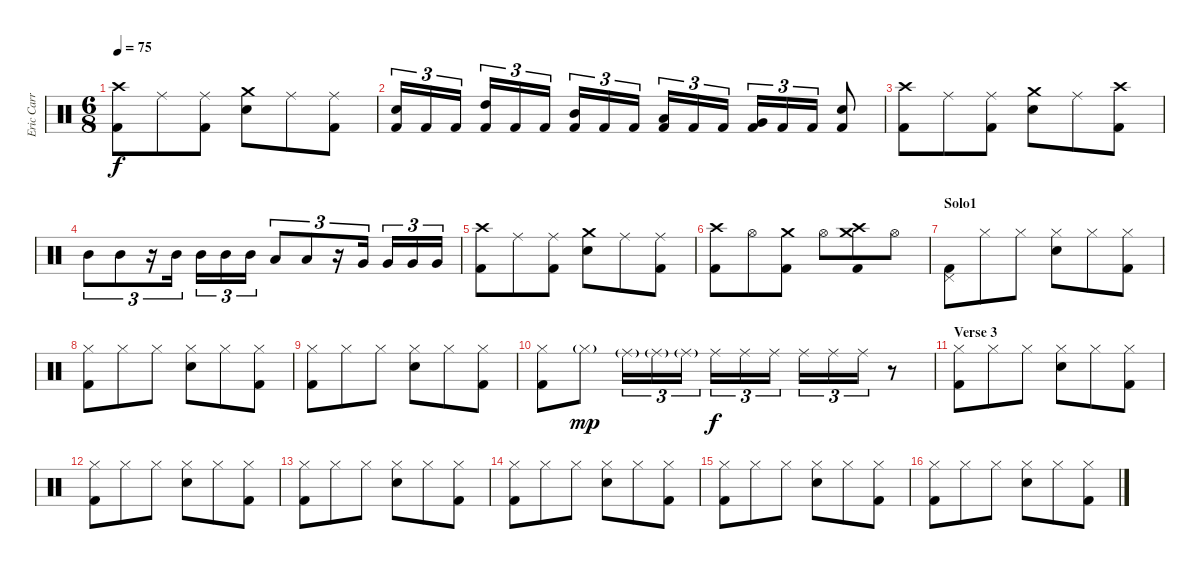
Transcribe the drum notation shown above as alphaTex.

\track ("Eric Carr" "Eric Carr") {instrument percussion}
\staff {score}
\articulation defaults
\ts (6 8)
\tempo 75
\clef neutral
\ks c
("Crash high (hit)" "Kick (hit) 2").8{dy f} "Ride (middle)".8 ("Ride (middle)" "Kick (hit) 2").8 ("Crash medium (hit)" "Electric Snare (hit)").8 "Ride (middle)".8 ("Ride (middle)" "Kick (hit) 2").8 |
("Electric Snare (hit)" "Kick (hit) 2").16{tu (3 2)} "Kick (hit) 2".16{tu (3 2)} "Kick (hit) 2".16{tu (3 2)} ("High Tom (hit)" "Kick (hit) 2").16{tu (3 2)} "Kick (hit) 2".16{tu (3 2)} "Kick (hit) 2".16{tu (3 2)} ("Mid Tom (hit)" "Kick (hit) 2").16{tu (3 2)} "Kick (hit) 2".16{tu (3 2)} "Kick (hit) 2".16{tu (3 2)} ("Low Tom (hit)" "Kick (hit) 2").16{tu (3 2)} "Kick (hit) 2".16{tu (3 2)} "Kick (hit) 2".16{tu (3 2)} ("Very Low Tom (hit)" "Kick (hit) 2").16{tu (3 2)} "Kick (hit) 2".16{tu (3 2)} "Kick (hit) 2".16{tu (3 2)} ("Electric Snare (hit)" "Kick (hit) 2").8 |
("Crash high (hit)" "Kick (hit) 2").8 "Ride (middle)".8 ("Ride (middle)" "Kick (hit) 2").8 ("Crash medium (hit)" "Electric Snare (hit)").8 "Ride (middle)".8 ("Crash high (hit)" "Kick (hit) 2").8 |
"Mid Tom (hit)".8{tu (3 2)} "Mid Tom (hit)".8{tu (3 2)} r.16{tu (3 2)} "Mid Tom (hit)".16{tu (3 2)} "Mid Tom (hit)".16{tu (3 2)} "Mid Tom (hit)".16{tu (3 2)} "Mid Tom (hit)".16{tu (3 2)} "Low Tom (hit)".8{tu (3 2)} "Low Tom (hit)".8{tu (3 2)} r.16{tu (3 2)} "Very Low Tom (hit)".16{tu (3 2)} "Very Low Tom (hit)".16{tu (3 2)} "Very Low Tom (hit)".16{tu (3 2)} "Very Low Tom (hit)".16{tu (3 2)} |
("Crash high (hit)" "Kick (hit) 2").8 "Ride (middle)".8 ("Ride (middle)" "Kick (hit) 2").8 ("Crash medium (hit)" "Electric Snare (hit)").8 "Ride (middle)".8 ("Ride (middle)" "Kick (hit) 2").8 |
("Crash high (hit)" "Kick (hit) 2").8 "Hi-Hat (open)".8 ("Crash medium (hit)" "Kick (hit) 2").8 "Hi-Hat (open)".8 ("Crash high (hit)" "Crash medium (hit)" "Kick (hit) 2").8 "Hi-Hat (open)".8 |
\section ("" "Solo1")
("Pedal Hi-Hat (hit)" "Kick (hit) 2").8 "Hi-Hat (closed)".8 "Hi-Hat (closed)".8 ("Hi-Hat (closed)" "Electric Snare (hit)").8 "Hi-Hat (closed)".8 ("Hi-Hat (closed)" "Kick (hit) 2").8 |
("Hi-Hat (closed)" "Kick (hit) 2").8 "Hi-Hat (closed)".8 "Hi-Hat (closed)".8 ("Hi-Hat (closed)" "Electric Snare (hit)").8 "Hi-Hat (closed)".8 ("Hi-Hat (closed)" "Kick (hit) 2").8 |
("Hi-Hat (closed)" "Kick (hit) 2").8 "Hi-Hat (closed)".8 "Hi-Hat (closed)".8 ("Hi-Hat (closed)" "Electric Snare (hit)").8 "Hi-Hat (closed)".8 ("Hi-Hat (closed)" "Kick (hit) 2").8 |
("Hi-Hat (closed)" "Kick (hit) 2").8 "Hi-Hat (closed)"{g}.8{dy mp} "Ride (middle)"{g}.16{tu (3 2)} "Ride (middle)"{g}.16{tu (3 2)} "Ride (middle)"{g}.16{tu (3 2)} "Ride (middle)".16{tu (3 2) dy f} "Ride (middle)".16{tu (3 2)} "Ride (middle)".16{tu (3 2)} "Ride (middle)".16{tu (3 2)} "Ride (middle)".16{tu (3 2)} "Ride (middle)".16{tu (3 2)} r.8 |
\section ("" "Verse 3")
("Hi-Hat (closed)" "Kick (hit) 2").8 "Hi-Hat (closed)".8 "Hi-Hat (closed)".8 ("Hi-Hat (closed)" "Electric Snare (hit)").8 "Hi-Hat (closed)".8 ("Hi-Hat (closed)" "Kick (hit) 2").8 |
("Hi-Hat (closed)" "Kick (hit) 2").8 "Hi-Hat (closed)".8 "Hi-Hat (closed)".8 ("Hi-Hat (closed)" "Electric Snare (hit)").8 "Hi-Hat (closed)".8 ("Hi-Hat (closed)" "Kick (hit) 2").8 |
("Hi-Hat (closed)" "Kick (hit) 2").8 "Hi-Hat (closed)".8 "Hi-Hat (closed)".8 ("Hi-Hat (closed)" "Electric Snare (hit)").8 "Hi-Hat (closed)".8 ("Hi-Hat (closed)" "Kick (hit) 2").8 |
("Hi-Hat (closed)" "Kick (hit) 2").8 "Hi-Hat (closed)".8 "Hi-Hat (closed)".8 ("Hi-Hat (closed)" "Electric Snare (hit)").8 "Hi-Hat (closed)".8 ("Hi-Hat (closed)" "Kick (hit) 2").8 |
("Hi-Hat (closed)" "Kick (hit) 2").8 "Hi-Hat (closed)".8 "Hi-Hat (closed)".8 ("Hi-Hat (closed)" "Electric Snare (hit)").8 "Hi-Hat (closed)".8 ("Hi-Hat (closed)" "Kick (hit) 2").8 |
("Hi-Hat (closed)" "Kick (hit) 2").8 "Hi-Hat (closed)".8 "Hi-Hat (closed)".8 ("Hi-Hat (closed)" "Electric Snare (hit)").8 "Hi-Hat (closed)".8 ("Hi-Hat (closed)" "Kick (hit) 2").8
